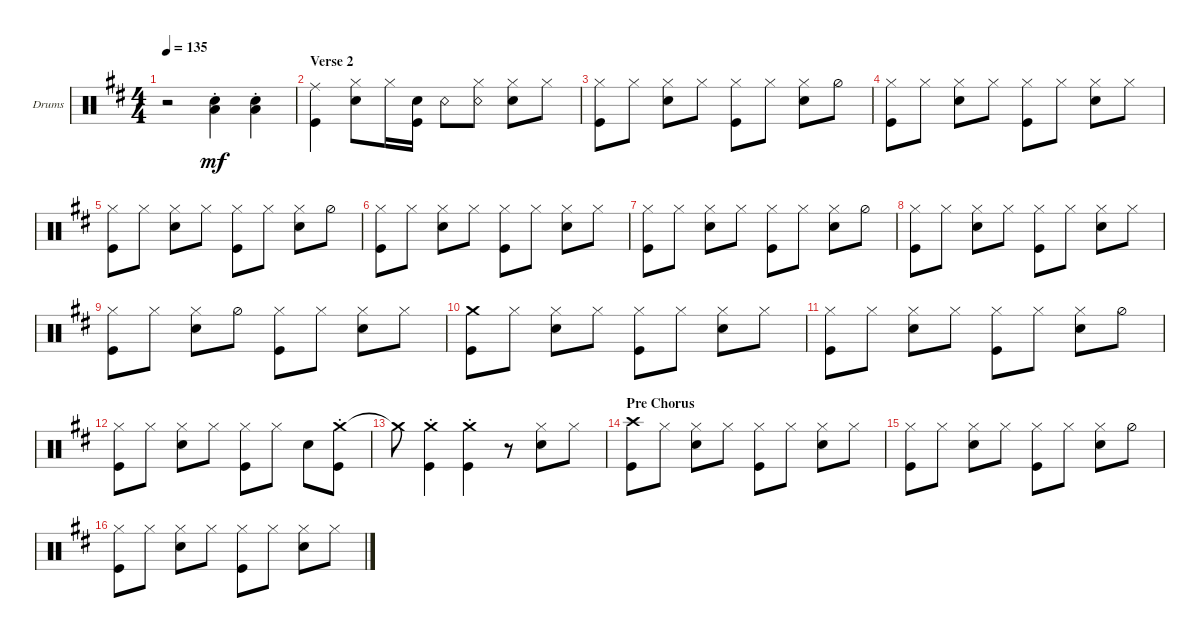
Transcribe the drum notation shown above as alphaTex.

\defaultSystemsLayout 4
\bracketExtendMode groupsimilarinstruments
\firstSystemTrackNameOrientation horizontal
\otherSystemsTrackNameOrientation horizontal
\track ("Drumkit" "Drums") {instrument percussion}
\staff {score}
\articulation defaults
\ts (4 4)
\tempo 135
\clef neutral
\ks bminor
r.2{dy mf} ("Snare (hit) 2"{st} "Low Tom (hit)"{st}).4 ("Snare (hit) 2"{st} "Low Tom (hit)"{st}).4 |
\section ("" "Verse 2")
("Ride (middle)" "Kick (hit)").4 ("Snare (hit) 2" "Hi-Hat (closed)").8 "Hi-Hat (closed)".16 ("Snare (hit) 2" "Kick (hit)").16 "Snare (rim shot)".8 ("Hi-Hat (closed)" "Snare (rim shot)").8 ("Hi-Hat (closed)" "Snare (hit) 2").8 "Hi-Hat (closed)".8 |
("Hi-Hat (closed)" "Kick (hit)").8 "Hi-Hat (closed)".8 ("Snare (hit) 2" "Hi-Hat (closed)").8 "Hi-Hat (closed)".8 ("Kick (hit)" "Hi-Hat (closed)").8 "Hi-Hat (closed)".8 ("Snare (hit) 2" "Hi-Hat (closed)").8 "Hi-Hat (half)".8 |
("Hi-Hat (closed)" "Kick (hit)").8 "Hi-Hat (closed)".8 ("Snare (hit) 2" "Hi-Hat (closed)").8 "Hi-Hat (closed)".8 ("Kick (hit)" "Hi-Hat (closed)").8 "Hi-Hat (closed)".8 ("Snare (hit) 2" "Hi-Hat (closed)").8 "Hi-Hat (closed)".8 |
("Hi-Hat (closed)" "Kick (hit)").8 "Hi-Hat (closed)".8 ("Snare (hit) 2" "Hi-Hat (closed)").8 "Hi-Hat (closed)".8 ("Kick (hit)" "Hi-Hat (closed)").8 "Hi-Hat (closed)".8 ("Snare (hit) 2" "Hi-Hat (closed)").8 "Hi-Hat (half)".8 |
("Kick (hit)" "Hi-Hat (closed)").8 "Hi-Hat (closed)".8 ("Snare (hit) 2" "Hi-Hat (closed)").8 "Hi-Hat (closed)".8 ("Kick (hit)" "Hi-Hat (closed)").8 "Hi-Hat (closed)".8 ("Snare (hit) 2" "Hi-Hat (closed)").8 "Hi-Hat (closed)".8 |
("Hi-Hat (closed)" "Kick (hit)").8 "Hi-Hat (closed)".8 ("Snare (hit) 2" "Hi-Hat (closed)").8 "Hi-Hat (closed)".8 ("Kick (hit)" "Hi-Hat (closed)").8 "Hi-Hat (closed)".8 ("Snare (hit) 2" "Hi-Hat (closed)").8 "Hi-Hat (half)".8 |
("Hi-Hat (closed)" "Kick (hit)").8 "Hi-Hat (closed)".8 ("Snare (hit) 2" "Hi-Hat (closed)").8 "Hi-Hat (closed)".8 ("Kick (hit)" "Hi-Hat (closed)").8 "Hi-Hat (closed)".8 ("Snare (hit) 2" "Hi-Hat (closed)").8 "Hi-Hat (closed)".8 |
("Hi-Hat (closed)" "Kick (hit)").8 "Hi-Hat (closed)".8 ("Snare (hit) 2" "Hi-Hat (closed)").8 "Hi-Hat (half)".8 ("Kick (hit)" "Hi-Hat (closed)").8 "Hi-Hat (closed)".8 ("Hi-Hat (closed)" "Snare (hit) 2").8 "Hi-Hat (closed)".8 |
("Crash medium (hit)" "Kick (hit)").8 "Hi-Hat (closed)".8 ("Snare (hit) 2" "Hi-Hat (closed)").8 "Hi-Hat (closed)".8 ("Kick (hit)" "Hi-Hat (closed)").8 "Hi-Hat (closed)".8 ("Snare (hit) 2" "Hi-Hat (closed)").8 "Hi-Hat (closed)".8 |
("Hi-Hat (closed)" "Kick (hit)").8 "Hi-Hat (closed)".8 ("Snare (hit) 2" "Hi-Hat (closed)").8 "Hi-Hat (closed)".8 ("Kick (hit)" "Hi-Hat (closed)").8 "Hi-Hat (closed)".8 ("Snare (hit) 2" "Hi-Hat (closed)").8 "Hi-Hat (half)".8 |
("Hi-Hat (closed)" "Kick (hit)").8 "Hi-Hat (closed)".8 ("Snare (hit) 2" "Hi-Hat (closed)").8 "Hi-Hat (closed)".8 ("Kick (hit)" "Hi-Hat (closed)").8 "Hi-Hat (closed)".8 "Snare (hit) 2".8 ("Crash medium (hit)"{st} "Kick (hit)").8 |
"Crash medium (hit)"{t}.8 ("Crash medium (hit)"{st} "Kick (hit)").4 ("Crash medium (hit)"{st} "Kick (hit)").4 r.8 ("Snare (hit) 2" "Hi-Hat (closed)").8 "Hi-Hat (closed)".8 |
\section ("" "Pre Chorus")
("Crash high (hit)" "Kick (hit)").8 "Hi-Hat (closed)".8 ("Hi-Hat (closed)" "Snare (hit) 2").8 "Hi-Hat (closed)".8 ("Hi-Hat (closed)" "Kick (hit)").8 "Hi-Hat (closed)".8 ("Hi-Hat (closed)" "Snare (hit) 2").8 "Hi-Hat (closed)".8 |
("Hi-Hat (closed)" "Kick (hit)").8 "Hi-Hat (closed)".8 ("Hi-Hat (closed)" "Snare (hit) 2").8 "Hi-Hat (closed)".8 ("Hi-Hat (closed)" "Kick (hit)").8 "Hi-Hat (closed)".8 ("Hi-Hat (closed)" "Snare (hit) 2").8 "Hi-Hat (half)".8 |
("Hi-Hat (closed)" "Kick (hit)").8 "Hi-Hat (closed)".8 ("Hi-Hat (closed)" "Snare (hit) 2").8 "Hi-Hat (closed)".8 ("Hi-Hat (closed)" "Kick (hit)").8 "Hi-Hat (closed)".8 ("Hi-Hat (closed)" "Snare (hit) 2").8 "Hi-Hat (closed)".8
